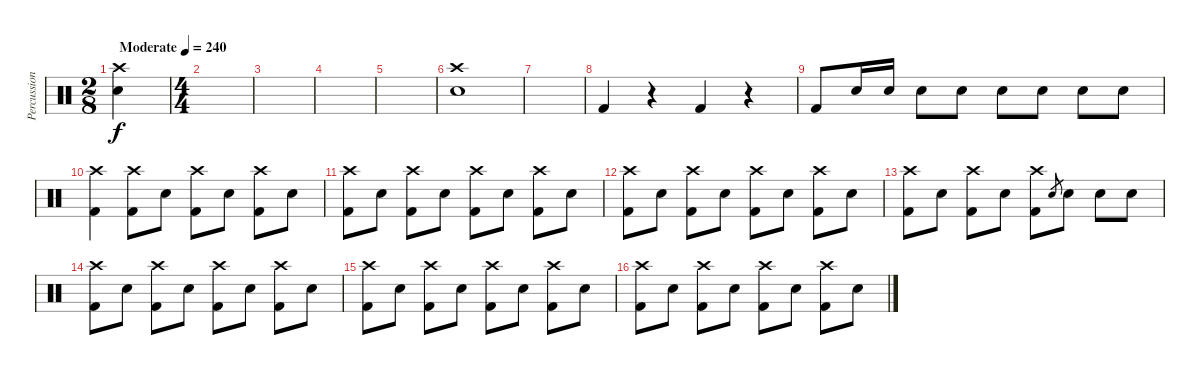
\track ("Percussion" "Percussion") {instrument percussion}
\staff {score}
\articulation defaults
\ts (2 8)
\tempo (240 "Moderate")
\clef neutral
\ks c
("Crash high (hit)" "Electric Snare (hit)").4{dy f} |
\ts (4 4)
|
|
|
|
("Crash high (hit)" "Electric Snare (hit)").1 |
|
"Kick (hit) 2".4 r.4 "Kick (hit) 2".4 r.4 |
"Kick (hit) 2".8 "Electric Snare (hit)".16 "Electric Snare (hit)".16 "Electric Snare (hit)".8 "Electric Snare (hit)".8 "Electric Snare (hit)".8 "Electric Snare (hit)".8 "Electric Snare (hit)".8 "Electric Snare (hit)".8 |
("Crash high (hit)" "Kick (hit) 2").4 ("Crash high (hit)" "Kick (hit) 2").8 "Electric Snare (hit)".8 ("Crash high (hit)" "Kick (hit) 2").8 "Electric Snare (hit)".8 ("Crash high (hit)" "Kick (hit) 2").8 "Electric Snare (hit)".8 |
("Crash high (hit)" "Kick (hit) 2").8 "Electric Snare (hit)".8 ("Crash high (hit)" "Kick (hit) 2").8 "Electric Snare (hit)".8 ("Crash high (hit)" "Kick (hit) 2").8 "Electric Snare (hit)".8 ("Crash high (hit)" "Kick (hit) 2").8 "Electric Snare (hit)".8 |
("Crash high (hit)" "Kick (hit) 2").8 "Electric Snare (hit)".8 ("Crash high (hit)" "Kick (hit) 2").8 "Electric Snare (hit)".8 ("Crash high (hit)" "Kick (hit) 2").8 "Electric Snare (hit)".8 ("Crash high (hit)" "Kick (hit) 2").8 "Electric Snare (hit)".8 |
("Crash high (hit)" "Kick (hit) 2").8 "Electric Snare (hit)".8 ("Crash high (hit)" "Kick (hit) 2").8 "Electric Snare (hit)".8 ("Crash high (hit)" "Kick (hit) 2").8 "Electric Snare (hit)".8{gr} "Electric Snare (hit)".8 "Electric Snare (hit)".8 "Electric Snare (hit)".8 |
("Crash high (hit)" "Kick (hit) 2").8 "Electric Snare (hit)".8 ("Crash high (hit)" "Kick (hit) 2").8 "Electric Snare (hit)".8 ("Crash high (hit)" "Kick (hit) 2").8 "Electric Snare (hit)".8 ("Crash high (hit)" "Kick (hit) 2").8 "Electric Snare (hit)".8 |
("Crash high (hit)" "Kick (hit) 2").8 "Electric Snare (hit)".8 ("Crash high (hit)" "Kick (hit) 2").8 "Electric Snare (hit)".8 ("Crash high (hit)" "Kick (hit) 2").8 "Electric Snare (hit)".8 ("Crash high (hit)" "Kick (hit) 2").8 "Electric Snare (hit)".8 |
("Crash high (hit)" "Kick (hit) 2").8 "Electric Snare (hit)".8 ("Crash high (hit)" "Kick (hit) 2").8 "Electric Snare (hit)".8 ("Crash high (hit)" "Kick (hit) 2").8 "Electric Snare (hit)".8 ("Crash high (hit)" "Kick (hit) 2").8 "Electric Snare (hit)".8
